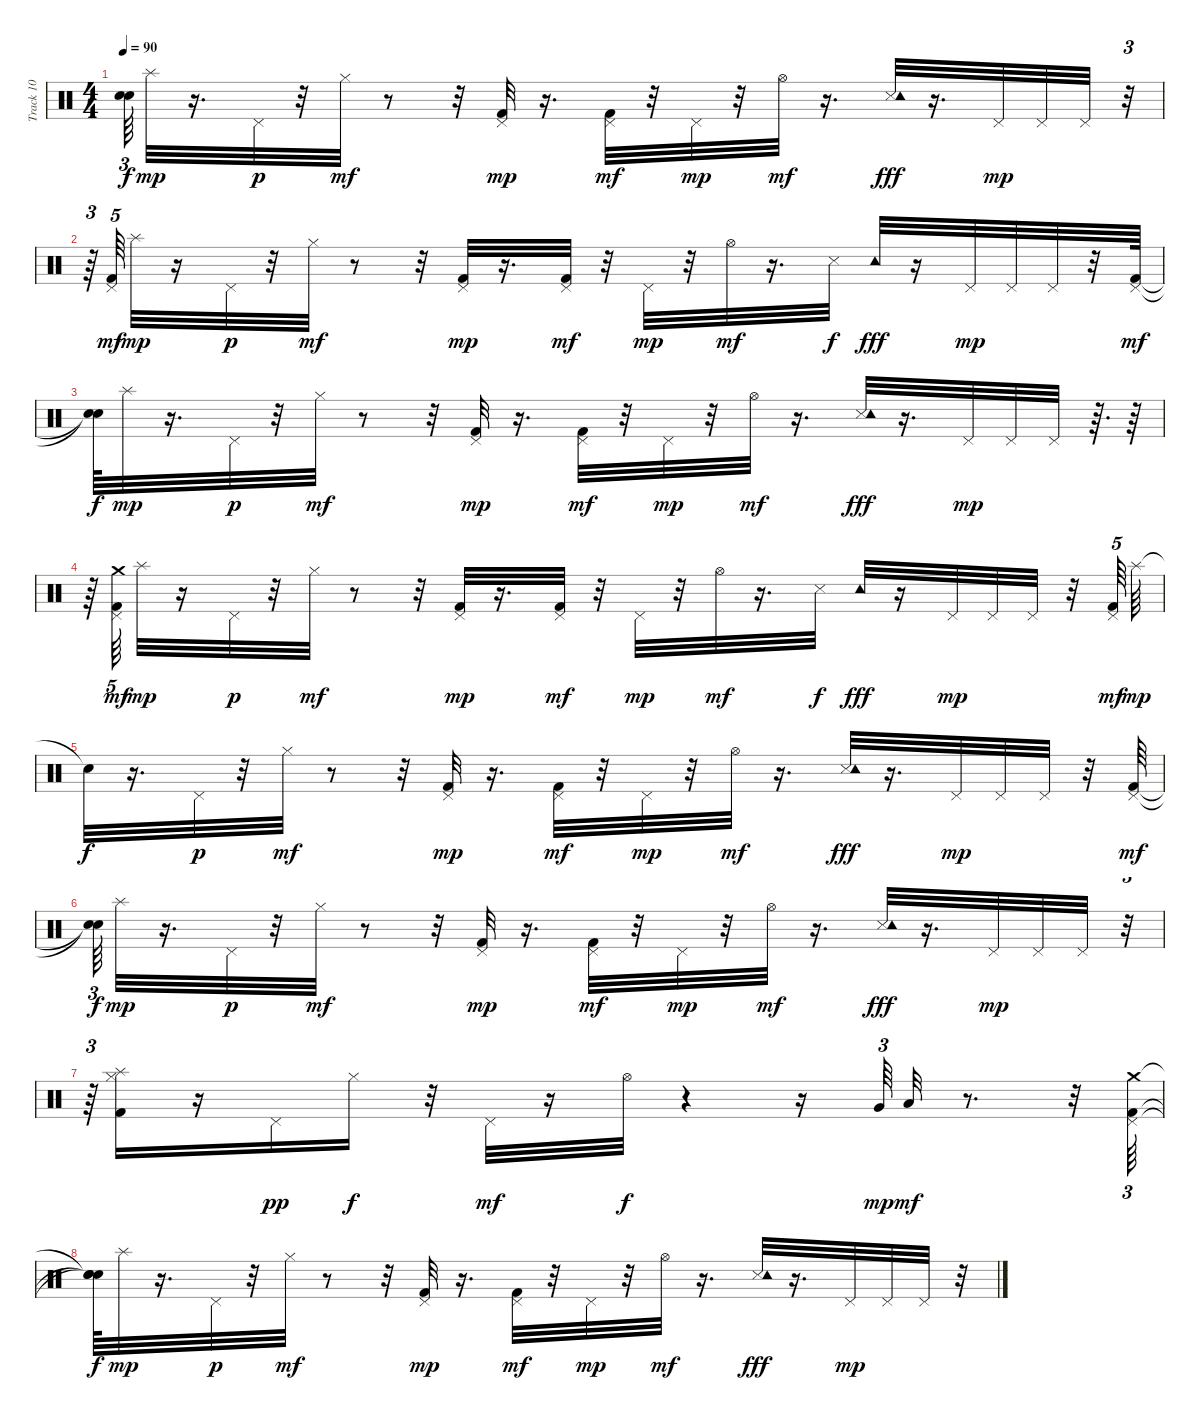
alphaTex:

\track ("Track 10" "Track 10") {instrument percussion}
\staff {score}
\articulation defaults
\ts (4 4)
\tempo 90
\clef neutral
\ks c
("Snare (hit)"{t} "Snare (hit)"{t}).64{tu (3 2) dy f} "Splash (hit)".32{dy mp} r.16{d} "Pedal Hi-Hat (hit)".32{dy p} r.32 "Hi-Hat (closed)".32{dy mf} r.8 r.32 ("Pedal Hi-Hat (hit)" "Kick (hit) 2").32{dy mp} r.16{d} ("Pedal Hi-Hat (hit)" "Kick (hit) 2").32{dy mf} r.32 "Pedal Hi-Hat (hit)".32{dy mp} r.32 "Hi-Hat (open)".32{dy mf} r.16{d} ("Snare (side stick) 3" "Tambourine (hit)").32{dy fff} r.16{d} "Pedal Hi-Hat (hit)".32{dy mp} "Pedal Hi-Hat (hit)".32 "Pedal Hi-Hat (hit)".32 r.32{tu (3 2)} |
r.64{tu (3 2)} ("Pedal Hi-Hat (hit)" "Kick (hit) 2").64{tu (5 4) dy mf} "Splash (hit)".32{dy mp} r.16 "Pedal Hi-Hat (hit)".32{dy p} r.32 "Hi-Hat (closed)".32{dy mf} r.8 r.32 ("Pedal Hi-Hat (hit)" "Kick (hit) 2").32{dy mp} r.16{d} ("Pedal Hi-Hat (hit)" "Kick (hit) 2").32{dy mf} r.32 "Pedal Hi-Hat (hit)".32{dy mp} r.32 "Hi-Hat (open)".32{dy mf} r.16{d} "Snare (side stick) 3".32{dy f} "Tambourine (hit)".32{dy fff} r.16 "Pedal Hi-Hat (hit)".32{dy mp} "Pedal Hi-Hat (hit)".32 "Pedal Hi-Hat (hit)".32 r.32 ("Pedal Hi-Hat (hit)" "Kick (hit) 2").64{dy mf} |
("Snare (hit)"{t} "Snare (hit)"{t}).64{dy f} "Splash (hit)".32{dy mp} r.16{d} "Pedal Hi-Hat (hit)".32{dy p} r.32 "Hi-Hat (closed)".32{dy mf} r.8 r.32 ("Pedal Hi-Hat (hit)" "Kick (hit) 2").32{dy mp} r.16{d} ("Pedal Hi-Hat (hit)" "Kick (hit) 2").32{dy mf} r.32 "Pedal Hi-Hat (hit)".32{dy mp} r.32 "Hi-Hat (open)".32{dy mf} r.16{d} ("Snare (side stick) 3" "Tambourine (hit)").32{dy fff} r.16{d} "Pedal Hi-Hat (hit)".32{dy mp} "Pedal Hi-Hat (hit)".32 "Pedal Hi-Hat (hit)".32 r.64{d} r.64 |
r.64 ("Pedal Hi-Hat (hit)" "Crash medium (hit)" "Kick (hit) 2").64{tu (5 4) dy mf} "Splash (hit)".32{dy mp} r.16 "Pedal Hi-Hat (hit)".32{dy p} r.32 "Hi-Hat (closed)".32{dy mf} r.8 r.32 ("Pedal Hi-Hat (hit)" "Kick (hit) 2").32{dy mp} r.16{d} ("Pedal Hi-Hat (hit)" "Kick (hit) 2").32{dy mf} r.32 "Pedal Hi-Hat (hit)".32{dy mp} r.32 "Hi-Hat (open)".32{dy mf} r.16{d} "Snare (side stick) 3".32{dy f} "Tambourine (hit)".32{dy fff} r.16 "Pedal Hi-Hat (hit)".32{dy mp} "Pedal Hi-Hat (hit)".32 "Pedal Hi-Hat (hit)".32 r.32 ("Pedal Hi-Hat (hit)" "Kick (hit) 2").64{tu (5 4) dy mf} "Splash (hit)".64{dy mp} |
"Snare (hit)"{t}.32{dy f} r.16{d} "Pedal Hi-Hat (hit)".32{dy p} r.32 "Hi-Hat (closed)".32{dy mf} r.8 r.32 ("Pedal Hi-Hat (hit)" "Kick (hit) 2").32{dy mp} r.16{d} ("Pedal Hi-Hat (hit)" "Kick (hit) 2").32{dy mf} r.32 "Pedal Hi-Hat (hit)".32{dy mp} r.32 "Hi-Hat (open)".32{dy mf} r.16{d} ("Snare (side stick) 3" "Tambourine (hit)").32{dy fff} r.16{d} "Pedal Hi-Hat (hit)".32{dy mp} "Pedal Hi-Hat (hit)".32 "Pedal Hi-Hat (hit)".32 r.32 ("Pedal Hi-Hat (hit)" "Kick (hit) 2").64{dy mf} |
("Snare (hit)"{t} "Snare (hit)"{t}).64{tu (3 2) dy f} "Splash (hit)".32{dy mp} r.16{d} "Pedal Hi-Hat (hit)".32{dy p} r.32 "Hi-Hat (closed)".32{dy mf} r.8 r.32 ("Pedal Hi-Hat (hit)" "Kick (hit) 2").32{dy mp} r.16{d} ("Pedal Hi-Hat (hit)" "Kick (hit) 2").32{dy mf} r.32 "Pedal Hi-Hat (hit)".32{dy mp} r.32 "Hi-Hat (open)".32{dy mf} r.16{d} ("Snare (side stick) 3" "Tambourine (hit)").32{dy fff} r.16{d} "Pedal Hi-Hat (hit)".32{dy mp} "Pedal Hi-Hat (hit)".32 "Pedal Hi-Hat (hit)".32 r.32{tu (3 2)} |
r.64{tu (3 2)} ("Kick (hit) 2" "Hi-Hat (closed)" "Splash (hit)").16 r.16 "Pedal Hi-Hat (hit)".16{dy pp} "Hi-Hat (closed)".16{dy f} r.32 "Pedal Hi-Hat (hit)".32{dy mf} r.16 "Hi-Hat (open)".32{dy f} r.4 r.16 "Very Low Tom (hit)".64{tu (3 2) dy mp} "Low Floor Tom (hit)".32{dy mf} r.8{d} r.32 ("Pedal Hi-Hat (hit)" "Crash medium (hit)" "Kick (hit) 2").64{tu (3 2)} |
("Snare (hit)"{t} "Snare (hit)"{t} "Snare (hit)"{t}).64{dy f} "Splash (hit)".32{dy mp} r.16{d} "Pedal Hi-Hat (hit)".32{dy p} r.32 "Hi-Hat (closed)".32{dy mf} r.8 r.32 ("Pedal Hi-Hat (hit)" "Kick (hit) 2").32{dy mp} r.16{d} ("Pedal Hi-Hat (hit)" "Kick (hit) 2").32{dy mf} r.32 "Pedal Hi-Hat (hit)".32{dy mp} r.32 "Hi-Hat (open)".32{dy mf} r.16{d} ("Snare (side stick) 3" "Tambourine (hit)").32{dy fff} r.16{d} "Pedal Hi-Hat (hit)".32{dy mp} "Pedal Hi-Hat (hit)".32 "Pedal Hi-Hat (hit)".32 r.32
